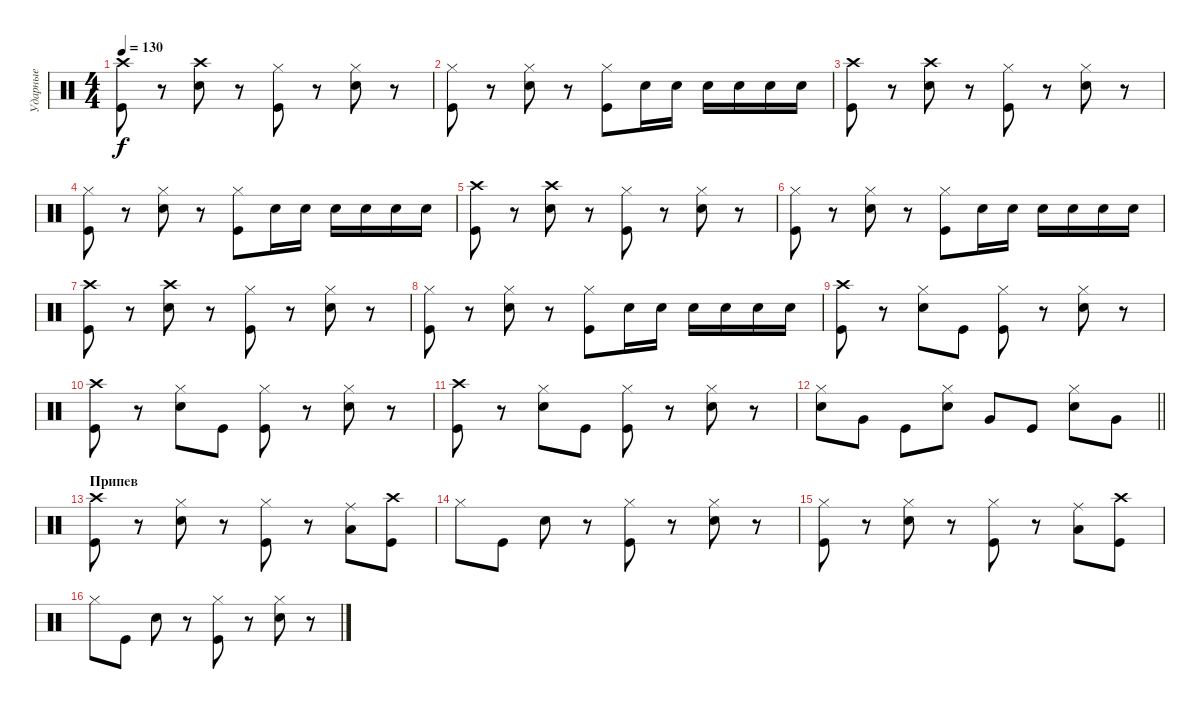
\track ("Ударные" "Ударные") {instrument percussion}
\staff {score}
\articulation defaults
\ts (4 4)
\tempo 130
\clef neutral
\ks c
("Crash high (hit)" "Kick (hit)").8{dy f} r.8 ("Crash high (hit)" "Snare (hit) 2").8 r.8 ("Hi-Hat (closed)" "Kick (hit)").8 r.8 ("Hi-Hat (closed)" "Snare (hit) 2").8 r.8 |
("Hi-Hat (closed)" "Kick (hit)").8 r.8 ("Hi-Hat (closed)" "Snare (hit) 2").8 r.8 ("Hi-Hat (closed)" "Kick (hit)").8 "Snare (hit) 2".16 "Snare (hit) 2".16 "Snare (hit) 2".16 "Snare (hit) 2".16 "Snare (hit) 2".16 "Snare (hit) 2".16 |
("Crash high (hit)" "Kick (hit)").8 r.8 ("Crash high (hit)" "Snare (hit) 2").8 r.8 ("Hi-Hat (closed)" "Kick (hit)").8 r.8 ("Hi-Hat (closed)" "Snare (hit) 2").8 r.8 |
("Hi-Hat (closed)" "Kick (hit)").8 r.8 ("Hi-Hat (closed)" "Snare (hit) 2").8 r.8 ("Hi-Hat (closed)" "Kick (hit)").8 "Snare (hit) 2".16 "Snare (hit) 2".16 "Snare (hit) 2".16 "Snare (hit) 2".16 "Snare (hit) 2".16 "Snare (hit) 2".16 |
("Crash high (hit)" "Kick (hit)").8 r.8 ("Crash high (hit)" "Snare (hit) 2").8 r.8 ("Hi-Hat (closed)" "Kick (hit)").8 r.8 ("Hi-Hat (closed)" "Snare (hit) 2").8 r.8 |
("Hi-Hat (closed)" "Kick (hit)").8 r.8 ("Hi-Hat (closed)" "Snare (hit) 2").8 r.8 ("Hi-Hat (closed)" "Kick (hit)").8 "Snare (hit) 2".16 "Snare (hit) 2".16 "Snare (hit) 2".16 "Snare (hit) 2".16 "Snare (hit) 2".16 "Snare (hit) 2".16 |
("Crash high (hit)" "Kick (hit)").8 r.8 ("Crash high (hit)" "Snare (hit) 2").8 r.8 ("Hi-Hat (closed)" "Kick (hit)").8 r.8 ("Hi-Hat (closed)" "Snare (hit) 2").8 r.8 |
("Hi-Hat (closed)" "Kick (hit)").8 r.8 ("Hi-Hat (closed)" "Snare (hit) 2").8 r.8 ("Hi-Hat (closed)" "Kick (hit)").8 "Snare (hit) 2".16 "Snare (hit) 2".16 "Snare (hit) 2".16 "Snare (hit) 2".16 "Snare (hit) 2".16 "Snare (hit) 2".16 |
("Crash high (hit)" "Kick (hit)").8 r.8 ("Hi-Hat (closed)" "Snare (hit) 2").8 "Kick (hit)".8 ("Hi-Hat (closed)" "Kick (hit)").8 r.8 ("Hi-Hat (closed)" "Snare (hit) 2").8 r.8 |
("Crash high (hit)" "Kick (hit)").8 r.8 ("Hi-Hat (closed)" "Snare (hit) 2").8 "Kick (hit)".8 ("Hi-Hat (closed)" "Kick (hit)").8 r.8 ("Hi-Hat (closed)" "Snare (hit) 2").8 r.8 |
("Crash high (hit)" "Kick (hit)").8 r.8 ("Hi-Hat (closed)" "Snare (hit) 2").8 "Kick (hit)".8 ("Hi-Hat (closed)" "Kick (hit)").8 r.8 ("Hi-Hat (closed)" "Snare (hit) 2").8 r.8 |
\barLineRight lightlight
("Hi-Hat (closed)" "Snare (hit) 2").8 "Very Low Tom (hit)".8 "Kick (hit)".8 ("Hi-Hat (closed)" "Snare (hit) 2").8 "Very Low Tom (hit)".8 "Kick (hit)".8 ("Hi-Hat (closed)" "Snare (hit) 2").8 "Very Low Tom (hit)".8 |
\section ("" "Припев")
("Crash high (hit)" "Kick (hit)").8 r.8 ("Hi-Hat (closed)" "Snare (hit) 2").8 r.8 ("Hi-Hat (closed)" "Kick (hit)").8 r.8 ("Ride (middle)" "Low Tom (hit)").8 ("Crash high (hit)" "Kick (hit)").8 |
"Hi-Hat (closed)".8 "Kick (hit)".8 "Snare (hit) 2".8 r.8 ("Hi-Hat (closed)" "Kick (hit)").8 r.8 ("Hi-Hat (closed)" "Snare (hit) 2").8 r.8 |
("Hi-Hat (closed)" "Kick (hit)").8 r.8 ("Hi-Hat (closed)" "Snare (hit) 2").8 r.8 ("Hi-Hat (closed)" "Kick (hit)").8 r.8 ("Ride (middle)" "Low Tom (hit)").8 ("Crash high (hit)" "Kick (hit)").8 |
"Hi-Hat (closed)".8 "Kick (hit)".8 "Snare (hit) 2".8 r.8 ("Hi-Hat (closed)" "Kick (hit)").8 r.8 ("Hi-Hat (closed)" "Snare (hit) 2").8 r.8
